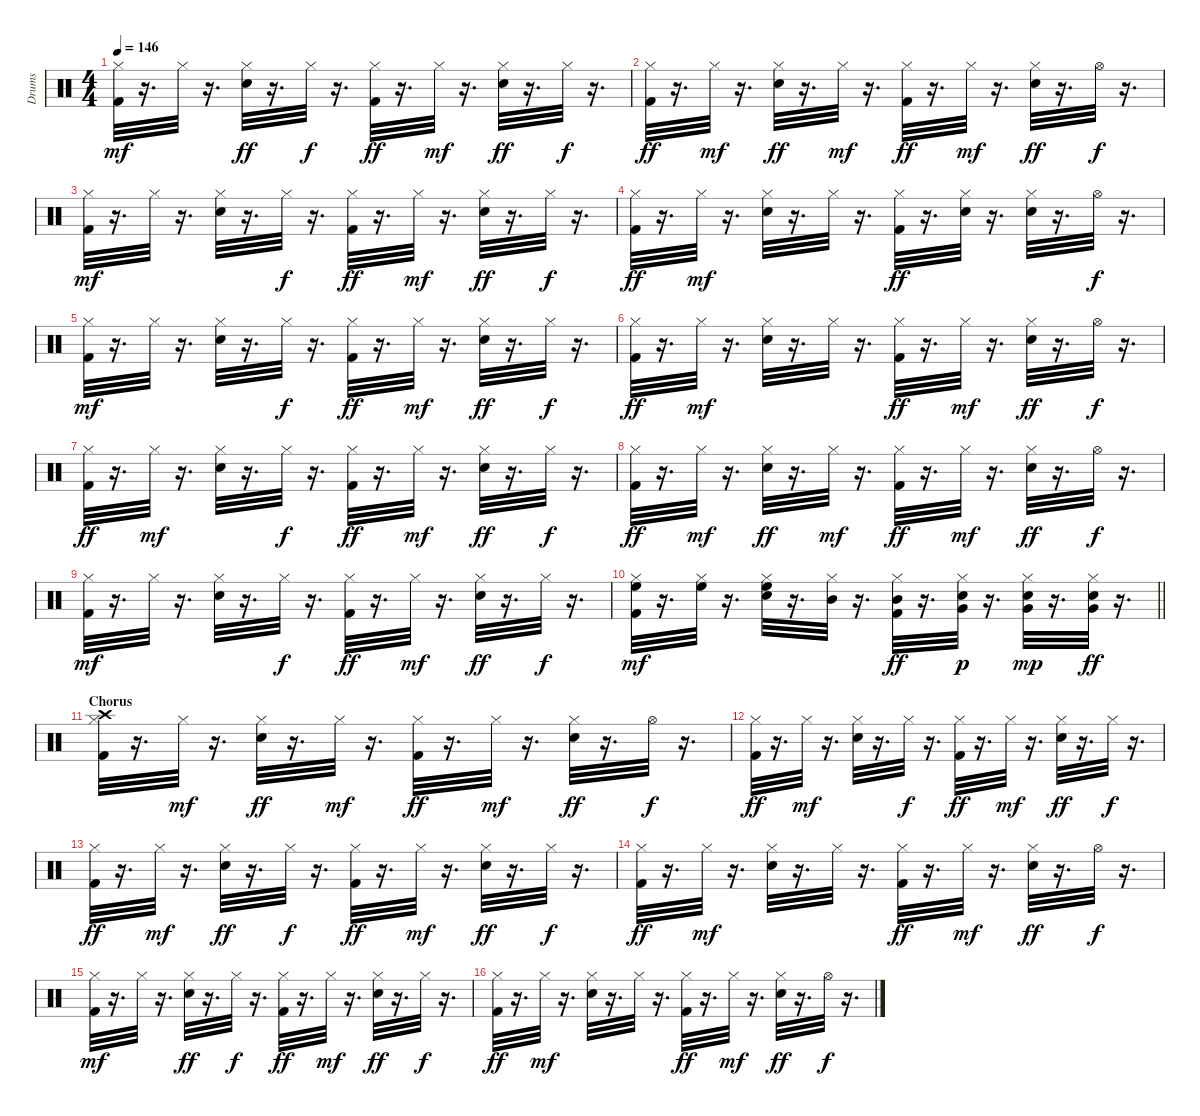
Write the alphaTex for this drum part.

\track ("Drums" "Drums") {instrument percussion}
\staff {score}
\articulation defaults
\ts (4 4)
\tempo 146
\clef neutral
\ks c
("Kick (hit) 2" "Hi-Hat (closed)").32{dy mf} r.16{d} "Hi-Hat (closed)".32 r.16{d} ("Hi-Hat (closed)" "Snare (hit) 2").32{dy ff} r.16{d} "Hi-Hat (closed)".32{dy f} r.16{d} ("Kick (hit) 2" "Hi-Hat (closed)").32{dy ff} r.16{d} "Hi-Hat (closed)".32{dy mf} r.16{d} ("Hi-Hat (closed)" "Snare (hit) 2").32{dy ff} r.16{d} "Hi-Hat (closed)".32{dy f} r.16{d} |
("Hi-Hat (closed)" "Kick (hit) 2").32{dy ff} r.16{d} "Hi-Hat (closed)".32{dy mf} r.16{d} ("Hi-Hat (closed)" "Snare (hit) 2").32{dy ff} r.16{d} "Hi-Hat (closed)".32{dy mf} r.16{d} ("Kick (hit) 2" "Hi-Hat (closed)").32{dy ff} r.16{d} "Hi-Hat (closed)".32{dy mf} r.16{d} ("Snare (hit) 2" "Hi-Hat (closed)").32{dy ff} r.16{d} "Hi-Hat (open)".32{dy f} r.16{d} |
("Kick (hit) 2" "Hi-Hat (closed)").32{dy mf} r.16{d} "Hi-Hat (closed)".32 r.16{d} ("Snare (hit) 2" "Hi-Hat (closed)").32 r.16{d} "Hi-Hat (closed)".32{dy f} r.16{d} ("Kick (hit) 2" "Hi-Hat (closed)").32{dy ff} r.16{d} "Hi-Hat (closed)".32{dy mf} r.16{d} ("Hi-Hat (closed)" "Snare (hit) 2").32{dy ff} r.16{d} "Hi-Hat (closed)".32{dy f} r.16{d} |
("Kick (hit) 2" "Hi-Hat (closed)").32{dy ff} r.16{d} "Hi-Hat (closed)".32{dy mf} r.16{d} ("Snare (hit) 2" "Hi-Hat (closed)").32 r.16{d} "Hi-Hat (closed)".32 r.16{d} ("Kick (hit) 2" "Hi-Hat (closed)").32{dy ff} r.16{d} ("Hi-Hat (closed)" "Snare (hit) 2").32 r.16{d} ("Hi-Hat (closed)" "Snare (hit) 2").32 r.16{d} "Hi-Hat (open)".32{dy f} r.16{d} |
("Kick (hit) 2" "Hi-Hat (closed)").32{dy mf} r.16{d} "Hi-Hat (closed)".32 r.16{d} ("Snare (hit) 2" "Hi-Hat (closed)").32 r.16{d} "Hi-Hat (closed)".32{dy f} r.16{d} ("Hi-Hat (closed)" "Kick (hit) 2").32{dy ff} r.16{d} "Hi-Hat (closed)".32{dy mf} r.16{d} ("Hi-Hat (closed)" "Snare (hit) 2").32{dy ff} r.16{d} "Hi-Hat (closed)".32{dy f} r.16{d} |
("Kick (hit) 2" "Hi-Hat (closed)").32{dy ff} r.16{d} "Hi-Hat (closed)".32{dy mf} r.16{d} ("Snare (hit) 2" "Hi-Hat (closed)").32 r.16{d} "Hi-Hat (closed)".32 r.16{d} ("Hi-Hat (closed)" "Kick (hit) 2").32{dy ff} r.16{d} "Hi-Hat (closed)".32{dy mf} r.16{d} ("Snare (hit) 2" "Hi-Hat (closed)").32{dy ff} r.16{d} "Hi-Hat (open)".32{dy f} r.16{d} |
("Hi-Hat (closed)" "Kick (hit) 2").32{dy ff} r.16{d} "Hi-Hat (closed)".32{dy mf} r.16{d} ("Snare (hit) 2" "Hi-Hat (closed)").32 r.16{d} "Hi-Hat (closed)".32{dy f} r.16{d} ("Hi-Hat (closed)" "Kick (hit) 2").32{dy ff} r.16{d} "Hi-Hat (closed)".32{dy mf} r.16{d} ("Hi-Hat (closed)" "Snare (hit) 2").32{dy ff} r.16{d} "Hi-Hat (closed)".32{dy f} r.16{d} |
("Kick (hit) 2" "Hi-Hat (closed)").32{dy ff} r.16{d} "Hi-Hat (closed)".32{dy mf} r.16{d} ("Hi-Hat (closed)" "Snare (hit) 2").32{dy ff} r.16{d} "Hi-Hat (closed)".32{dy mf} r.16{d} ("Hi-Hat (closed)" "Kick (hit) 2").32{dy ff} r.16{d} "Hi-Hat (closed)".32{dy mf} r.16{d} ("Snare (hit) 2" "Hi-Hat (closed)").32{dy ff} r.16{d} "Hi-Hat (open)".32{dy f} r.16{d} |
("Kick (hit) 2" "Hi-Hat (closed)").32{dy mf} r.16{d} "Hi-Hat (closed)".32 r.16{d} ("Snare (hit) 2" "Hi-Hat (closed)").32 r.16{d} "Hi-Hat (closed)".32{dy f} r.16{d} ("Kick (hit) 2" "Hi-Hat (closed)").32{dy ff} r.16{d} "Hi-Hat (closed)".32{dy mf} r.16{d} ("Snare (hit) 2" "Hi-Hat (closed)").32{dy ff} r.16{d} "Hi-Hat (closed)".32{dy f} r.16{d} |
\barLineRight lightlight
("Kick (hit) 2" "Hi-Hat (closed)" "High Floor Tom (hit)").32{dy mf} r.16{d} ("Hi-Hat (closed)" "High Floor Tom (hit)").32 r.16{d} ("Snare (hit) 2" "Hi-Hat (closed)" "High Floor Tom (hit)").32 r.16{d} ("Hi-Hat (closed)" "Mid Tom (hit)").32 r.16{d} ("Kick (hit) 2" "Hi-Hat (closed)" "Mid Tom (hit)").32{dy ff} r.16{d} ("Hi-Hat (closed)" "Snare (hit) 2" "Very Low Tom (hit)").32{dy p} r.16{d} ("Hi-Hat (closed)" "Snare (hit) 2" "Very Low Tom (hit)").32{dy mp} r.16{d} ("Hi-Hat (closed)" "Snare (hit) 2" "Very Low Tom (hit)").32{dy ff} r.16{d} |
\section ("" "Chorus")
("Kick (hit) 2" "Hi-Hat (closed)" "Crash high (hit)").32 r.16{d} "Hi-Hat (closed)".32{dy mf} r.16{d} ("Hi-Hat (closed)" "Snare (hit) 2").32{dy ff} r.16{d} "Hi-Hat (closed)".32{dy mf} r.16{d} ("Hi-Hat (closed)" "Kick (hit) 2").32{dy ff} r.16{d} "Hi-Hat (closed)".32{dy mf} r.16{d} ("Snare (hit) 2" "Hi-Hat (closed)").32{dy ff} r.16{d} "Hi-Hat (open)".32{dy f} r.16{d} |
("Hi-Hat (closed)" "Kick (hit) 2").32{dy ff} r.16{d} "Hi-Hat (closed)".32{dy mf} r.16{d} ("Snare (hit) 2" "Hi-Hat (closed)").32 r.16{d} "Hi-Hat (closed)".32{dy f} r.16{d} ("Kick (hit) 2" "Hi-Hat (closed)").32{dy ff} r.16{d} "Hi-Hat (closed)".32{dy mf} r.16{d} ("Snare (hit) 2" "Hi-Hat (closed)").32{dy ff} r.16{d} "Hi-Hat (closed)".32{dy f} r.16{d} |
("Hi-Hat (closed)" "Kick (hit) 2").32{dy ff} r.16{d} "Hi-Hat (closed)".32{dy mf} r.16{d} ("Hi-Hat (closed)" "Snare (hit) 2").32{dy ff} r.16{d} "Hi-Hat (closed)".32{dy f} r.16{d} ("Kick (hit) 2" "Hi-Hat (closed)").32{dy ff} r.16{d} "Hi-Hat (closed)".32{dy mf} r.16{d} ("Snare (hit) 2" "Hi-Hat (closed)").32{dy ff} r.16{d} "Hi-Hat (closed)".32{dy f} r.16{d} |
("Kick (hit) 2" "Hi-Hat (closed)").32{dy ff} r.16{d} "Hi-Hat (closed)".32{dy mf} r.16{d} ("Snare (hit) 2" "Hi-Hat (closed)").32 r.16{d} "Hi-Hat (closed)".32 r.16{d} ("Kick (hit) 2" "Hi-Hat (closed)").32{dy ff} r.16{d} "Hi-Hat (closed)".32{dy mf} r.16{d} ("Hi-Hat (closed)" "Snare (hit) 2").32{dy ff} r.16{d} "Hi-Hat (open)".32{dy f} r.16{d} |
("Kick (hit) 2" "Hi-Hat (closed)").32{dy mf} r.16{d} "Hi-Hat (closed)".32 r.16{d} ("Hi-Hat (closed)" "Snare (hit) 2").32{dy ff} r.16{d} "Hi-Hat (closed)".32{dy f} r.16{d} ("Kick (hit) 2" "Hi-Hat (closed)").32{dy ff} r.16{d} "Hi-Hat (closed)".32{dy mf} r.16{d} ("Snare (hit) 2" "Hi-Hat (closed)").32{dy ff} r.16{d} "Hi-Hat (closed)".32{dy f} r.16{d} |
("Kick (hit) 2" "Hi-Hat (closed)").32{dy ff} r.16{d} "Hi-Hat (closed)".32{dy mf} r.16{d} ("Snare (hit) 2" "Hi-Hat (closed)").32 r.16{d} "Hi-Hat (closed)".32 r.16{d} ("Kick (hit) 2" "Hi-Hat (closed)").32{dy ff} r.16{d} "Hi-Hat (closed)".32{dy mf} r.16{d} ("Snare (hit) 2" "Hi-Hat (closed)").32{dy ff} r.16{d} "Hi-Hat (open)".32{dy f} r.16{d}
